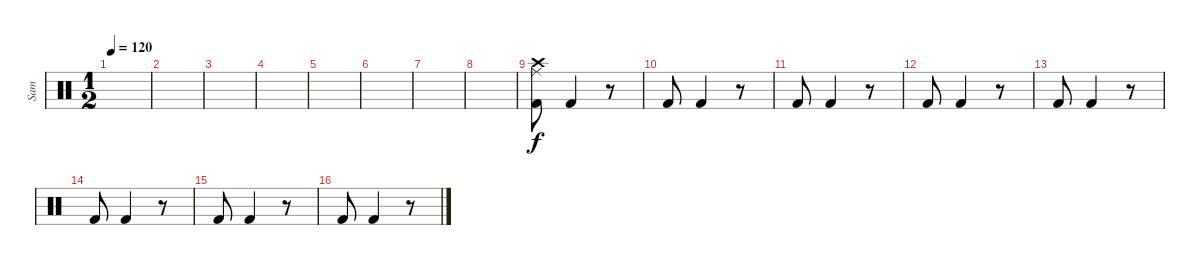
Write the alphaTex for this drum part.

\track ("Sam" "Sam") {instrument percussion}
\staff {score}
\articulation defaults
\ts (1 2)
\tempo 120
\clef neutral
\ks c
|
|
|
|
|
|
|
|
("Crash high (hit)" "Ride (middle)" "Kick (hit) 2").8 "Kick (hit) 2".4 r.8 |
"Kick (hit) 2".8 "Kick (hit) 2".4 r.8 |
"Kick (hit) 2".8 "Kick (hit) 2".4 r.8 |
"Kick (hit) 2".8 "Kick (hit) 2".4 r.8 |
"Kick (hit) 2".8 "Kick (hit) 2".4 r.8 |
"Kick (hit) 2".8 "Kick (hit) 2".4 r.8 |
"Kick (hit) 2".8 "Kick (hit) 2".4 r.8 |
"Kick (hit) 2".8 "Kick (hit) 2".4 r.8
